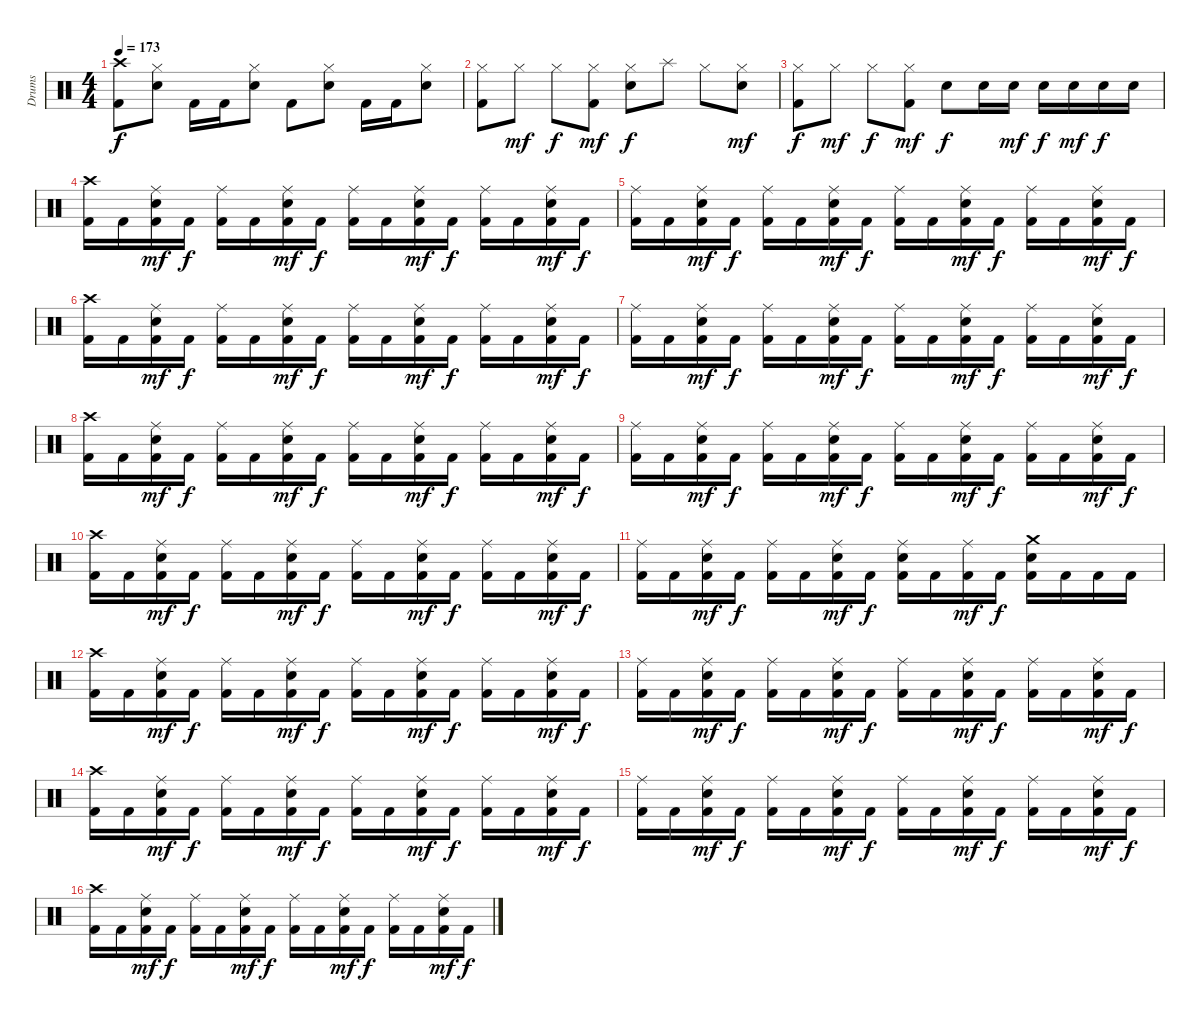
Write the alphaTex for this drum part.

\track ("Drums" "Drums") {instrument percussion}
\staff {score}
\articulation defaults
\ts (4 4)
\tempo 173
\clef neutral
\ks c
("Kick (hit) 2" "Crash high (hit)").8{dy f} ("Hi-Hat (closed)" "Electric Snare (hit)").8 "Kick (hit) 2".16 "Kick (hit) 2".16 ("Hi-Hat (closed)" "Electric Snare (hit)").8 "Kick (hit) 2".8 ("Hi-Hat (closed)" "Electric Snare (hit)").8 "Kick (hit) 2".16 "Kick (hit) 2".16 ("Hi-Hat (closed)" "Electric Snare (hit)").8 |
("Kick (hit) 2" "Hi-Hat (closed)").8 "Hi-Hat (closed)".8{dy mf} "Hi-Hat (closed)".8{dy f} ("Kick (hit) 2" "Hi-Hat (closed)").8{dy mf} ("Hi-Hat (closed)" "Electric Snare (hit)").8{dy f} "Splash (hit)".8 "Hi-Hat (closed)".8 ("Hi-Hat (closed)" "Electric Snare (hit)").8{dy mf} |
("Kick (hit) 2" "Hi-Hat (closed)").8{dy f} "Hi-Hat (closed)".8{dy mf} "Hi-Hat (closed)".8{dy f} ("Kick (hit) 2" "Hi-Hat (closed)").8{dy mf} "Electric Snare (hit)".8{dy f} "Electric Snare (hit)".16 "Electric Snare (hit)".16{dy mf} "Electric Snare (hit)".16{dy f} "Electric Snare (hit)".16{dy mf} "Electric Snare (hit)".16{dy f} "Electric Snare (hit)".16 |
("Kick (hit) 2" "Crash high (hit)").16 "Kick (hit) 2".16 ("Kick (hit) 2" "Ride (middle)" "Electric Snare (hit)").16{dy mf} "Kick (hit) 2".16{dy f} ("Kick (hit) 2" "Ride (middle)").16 "Kick (hit) 2".16 ("Kick (hit) 2" "Ride (middle)" "Electric Snare (hit)").16{dy mf} "Kick (hit) 2".16{dy f} ("Kick (hit) 2" "Ride (middle)").16 "Kick (hit) 2".16 ("Kick (hit) 2" "Ride (middle)" "Electric Snare (hit)").16{dy mf} "Kick (hit) 2".16{dy f} ("Kick (hit) 2" "Ride (middle)").16 "Kick (hit) 2".16 ("Kick (hit) 2" "Ride (middle)" "Electric Snare (hit)").16{dy mf} "Kick (hit) 2".16{dy f} |
("Kick (hit) 2" "Ride (middle)").16 "Kick (hit) 2".16 ("Kick (hit) 2" "Ride (middle)" "Electric Snare (hit)").16{dy mf} "Kick (hit) 2".16{dy f} ("Kick (hit) 2" "Ride (middle)").16 "Kick (hit) 2".16 ("Kick (hit) 2" "Ride (middle)" "Electric Snare (hit)").16{dy mf} "Kick (hit) 2".16{dy f} ("Kick (hit) 2" "Ride (middle)").16 "Kick (hit) 2".16 ("Kick (hit) 2" "Ride (middle)" "Electric Snare (hit)").16{dy mf} "Kick (hit) 2".16{dy f} ("Kick (hit) 2" "Ride (middle)").16 "Kick (hit) 2".16 ("Kick (hit) 2" "Ride (middle)" "Electric Snare (hit)").16{dy mf} "Kick (hit) 2".16{dy f} |
("Kick (hit) 2" "Crash high (hit)").16 "Kick (hit) 2".16 ("Kick (hit) 2" "Ride (middle)" "Electric Snare (hit)").16{dy mf} "Kick (hit) 2".16{dy f} ("Kick (hit) 2" "Ride (middle)").16 "Kick (hit) 2".16 ("Kick (hit) 2" "Ride (middle)" "Electric Snare (hit)").16{dy mf} "Kick (hit) 2".16{dy f} ("Kick (hit) 2" "Ride (middle)").16 "Kick (hit) 2".16 ("Kick (hit) 2" "Ride (middle)" "Electric Snare (hit)").16{dy mf} "Kick (hit) 2".16{dy f} ("Kick (hit) 2" "Ride (middle)").16 "Kick (hit) 2".16 ("Kick (hit) 2" "Ride (middle)" "Electric Snare (hit)").16{dy mf} "Kick (hit) 2".16{dy f} |
("Kick (hit) 2" "Ride (middle)").16 "Kick (hit) 2".16 ("Kick (hit) 2" "Ride (middle)" "Electric Snare (hit)").16{dy mf} "Kick (hit) 2".16{dy f} ("Kick (hit) 2" "Ride (middle)").16 "Kick (hit) 2".16 ("Kick (hit) 2" "Ride (middle)" "Electric Snare (hit)").16{dy mf} "Kick (hit) 2".16{dy f} ("Kick (hit) 2" "Ride (middle)").16 "Kick (hit) 2".16 ("Kick (hit) 2" "Ride (middle)" "Electric Snare (hit)").16{dy mf} "Kick (hit) 2".16{dy f} ("Kick (hit) 2" "Ride (middle)").16 "Kick (hit) 2".16 ("Kick (hit) 2" "Ride (middle)" "Electric Snare (hit)").16{dy mf} "Kick (hit) 2".16{dy f} |
("Kick (hit) 2" "Crash high (hit)").16 "Kick (hit) 2".16 ("Kick (hit) 2" "Ride (middle)" "Electric Snare (hit)").16{dy mf} "Kick (hit) 2".16{dy f} ("Kick (hit) 2" "Ride (middle)").16 "Kick (hit) 2".16 ("Kick (hit) 2" "Ride (middle)" "Electric Snare (hit)").16{dy mf} "Kick (hit) 2".16{dy f} ("Kick (hit) 2" "Ride (middle)").16 "Kick (hit) 2".16 ("Kick (hit) 2" "Ride (middle)" "Electric Snare (hit)").16{dy mf} "Kick (hit) 2".16{dy f} ("Kick (hit) 2" "Ride (middle)").16 "Kick (hit) 2".16 ("Kick (hit) 2" "Ride (middle)" "Electric Snare (hit)").16{dy mf} "Kick (hit) 2".16{dy f} |
("Kick (hit) 2" "Ride (middle)").16 "Kick (hit) 2".16 ("Kick (hit) 2" "Ride (middle)" "Electric Snare (hit)").16{dy mf} "Kick (hit) 2".16{dy f} ("Kick (hit) 2" "Ride (middle)").16 "Kick (hit) 2".16 ("Kick (hit) 2" "Ride (middle)" "Electric Snare (hit)").16{dy mf} "Kick (hit) 2".16{dy f} ("Kick (hit) 2" "Ride (middle)").16 "Kick (hit) 2".16 ("Kick (hit) 2" "Ride (middle)" "Electric Snare (hit)").16{dy mf} "Kick (hit) 2".16{dy f} ("Kick (hit) 2" "Ride (middle)").16 "Kick (hit) 2".16 ("Kick (hit) 2" "Ride (middle)" "Electric Snare (hit)").16{dy mf} "Kick (hit) 2".16{dy f} |
("Kick (hit) 2" "Crash high (hit)").16 "Kick (hit) 2".16 ("Kick (hit) 2" "Ride (middle)" "Electric Snare (hit)").16{dy mf} "Kick (hit) 2".16{dy f} ("Kick (hit) 2" "Ride (middle)").16 "Kick (hit) 2".16 ("Kick (hit) 2" "Ride (middle)" "Electric Snare (hit)").16{dy mf} "Kick (hit) 2".16{dy f} ("Kick (hit) 2" "Ride (middle)").16 "Kick (hit) 2".16 ("Kick (hit) 2" "Ride (middle)" "Electric Snare (hit)").16{dy mf} "Kick (hit) 2".16{dy f} ("Kick (hit) 2" "Ride (middle)").16 "Kick (hit) 2".16 ("Kick (hit) 2" "Ride (middle)" "Electric Snare (hit)").16{dy mf} "Kick (hit) 2".16{dy f} |
("Kick (hit) 2" "Ride (middle)").16 "Kick (hit) 2".16 ("Kick (hit) 2" "Ride (middle)" "Electric Snare (hit)").16{dy mf} "Kick (hit) 2".16{dy f} ("Kick (hit) 2" "Ride (middle)").16 "Kick (hit) 2".16 ("Kick (hit) 2" "Ride (middle)" "Electric Snare (hit)").16{dy mf} "Kick (hit) 2".16{dy f} ("Kick (hit) 2" "Ride (middle)" "Electric Snare (hit)").16 "Kick (hit) 2".16 ("Kick (hit) 2" "Ride (middle)").16{dy mf} "Kick (hit) 2".16{dy f} ("Kick (hit) 2" "Crash medium (hit)" "Electric Snare (hit)").16 "Kick (hit) 2".16 "Kick (hit) 2".16 "Kick (hit) 2".16 |
("Kick (hit) 2" "Crash high (hit)").16 "Kick (hit) 2".16 ("Kick (hit) 2" "Ride (middle)" "Electric Snare (hit)").16{dy mf} "Kick (hit) 2".16{dy f} ("Kick (hit) 2" "Ride (middle)").16 "Kick (hit) 2".16 ("Kick (hit) 2" "Ride (middle)" "Electric Snare (hit)").16{dy mf} "Kick (hit) 2".16{dy f} ("Kick (hit) 2" "Ride (middle)").16 "Kick (hit) 2".16 ("Kick (hit) 2" "Ride (middle)" "Electric Snare (hit)").16{dy mf} "Kick (hit) 2".16{dy f} ("Kick (hit) 2" "Ride (middle)").16 "Kick (hit) 2".16 ("Kick (hit) 2" "Ride (middle)" "Electric Snare (hit)").16{dy mf} "Kick (hit) 2".16{dy f} |
("Kick (hit) 2" "Ride (middle)").16 "Kick (hit) 2".16 ("Kick (hit) 2" "Ride (middle)" "Electric Snare (hit)").16{dy mf} "Kick (hit) 2".16{dy f} ("Kick (hit) 2" "Ride (middle)").16 "Kick (hit) 2".16 ("Kick (hit) 2" "Ride (middle)" "Electric Snare (hit)").16{dy mf} "Kick (hit) 2".16{dy f} ("Kick (hit) 2" "Ride (middle)").16 "Kick (hit) 2".16 ("Kick (hit) 2" "Ride (middle)" "Electric Snare (hit)").16{dy mf} "Kick (hit) 2".16{dy f} ("Kick (hit) 2" "Ride (middle)").16 "Kick (hit) 2".16 ("Kick (hit) 2" "Ride (middle)" "Electric Snare (hit)").16{dy mf} "Kick (hit) 2".16{dy f} |
("Kick (hit) 2" "Crash high (hit)").16 "Kick (hit) 2".16 ("Kick (hit) 2" "Ride (middle)" "Electric Snare (hit)").16{dy mf} "Kick (hit) 2".16{dy f} ("Kick (hit) 2" "Ride (middle)").16 "Kick (hit) 2".16 ("Kick (hit) 2" "Ride (middle)" "Electric Snare (hit)").16{dy mf} "Kick (hit) 2".16{dy f} ("Kick (hit) 2" "Ride (middle)").16 "Kick (hit) 2".16 ("Kick (hit) 2" "Ride (middle)" "Electric Snare (hit)").16{dy mf} "Kick (hit) 2".16{dy f} ("Kick (hit) 2" "Ride (middle)").16 "Kick (hit) 2".16 ("Kick (hit) 2" "Ride (middle)" "Electric Snare (hit)").16{dy mf} "Kick (hit) 2".16{dy f} |
("Kick (hit) 2" "Ride (middle)").16 "Kick (hit) 2".16 ("Kick (hit) 2" "Ride (middle)" "Electric Snare (hit)").16{dy mf} "Kick (hit) 2".16{dy f} ("Kick (hit) 2" "Ride (middle)").16 "Kick (hit) 2".16 ("Kick (hit) 2" "Ride (middle)" "Electric Snare (hit)").16{dy mf} "Kick (hit) 2".16{dy f} ("Kick (hit) 2" "Ride (middle)").16 "Kick (hit) 2".16 ("Kick (hit) 2" "Ride (middle)" "Electric Snare (hit)").16{dy mf} "Kick (hit) 2".16{dy f} ("Kick (hit) 2" "Ride (middle)").16 "Kick (hit) 2".16 ("Kick (hit) 2" "Ride (middle)" "Electric Snare (hit)").16{dy mf} "Kick (hit) 2".16{dy f} |
("Kick (hit) 2" "Crash high (hit)").16 "Kick (hit) 2".16 ("Kick (hit) 2" "Ride (middle)" "Electric Snare (hit)").16{dy mf} "Kick (hit) 2".16{dy f} ("Kick (hit) 2" "Ride (middle)").16 "Kick (hit) 2".16 ("Kick (hit) 2" "Ride (middle)" "Electric Snare (hit)").16{dy mf} "Kick (hit) 2".16{dy f} ("Kick (hit) 2" "Ride (middle)").16 "Kick (hit) 2".16 ("Kick (hit) 2" "Ride (middle)" "Electric Snare (hit)").16{dy mf} "Kick (hit) 2".16{dy f} ("Kick (hit) 2" "Ride (middle)").16 "Kick (hit) 2".16 ("Kick (hit) 2" "Ride (middle)" "Electric Snare (hit)").16{dy mf} "Kick (hit) 2".16{dy f}
